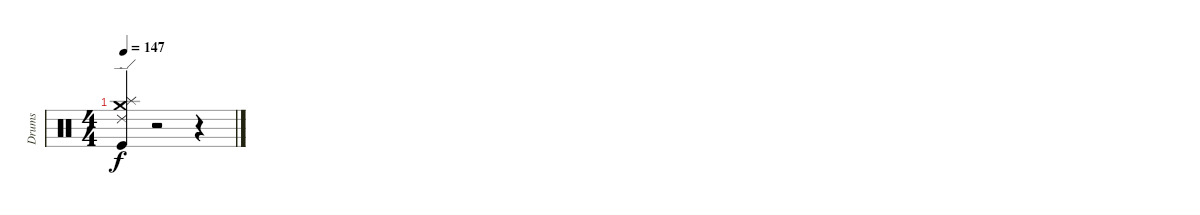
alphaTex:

\track ("Drums" "Drums") {instrument percussion}
\staff {score}
\articulation defaults
\ts (4 4)
\tempo 147
\clef neutral
\ks c
("Ride (edge) 2" "Splash (hit)" "Crash medium (hit)" "Kick (hit)").4{dy f} r.2 r.4
